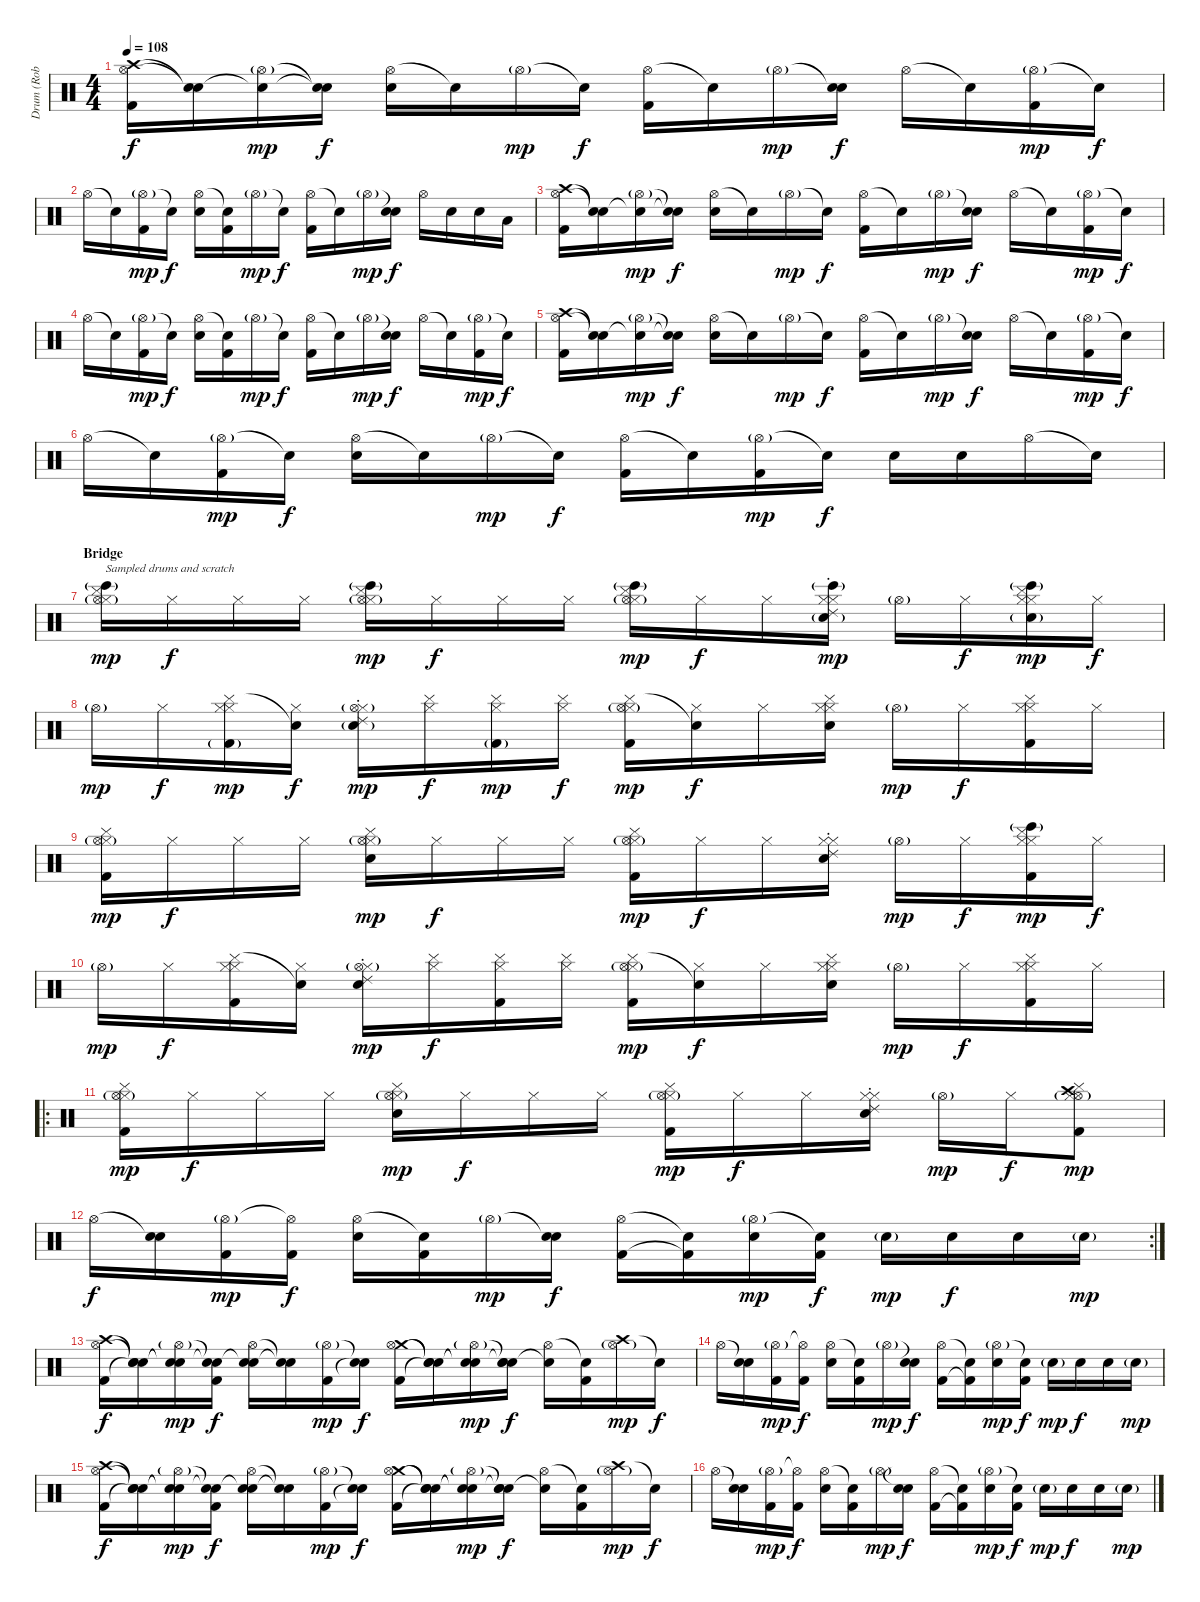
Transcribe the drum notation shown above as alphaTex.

\track ("Drum (Rob Bourdon)" "Drum (Rob ") {instrument percussion}
\staff {score}
\articulation defaults
\ts (4 4)
\tempo 108
\clef neutral
\ks c
("Crash high (hit)" "Hi-Hat (open)" "Kick (hit) 2").16{dy f} ("Snare (hit)"{t} "Snare (hit)"{t}).16 ("Snare (hit)"{t} "Hi-Hat (open)"{g}).16{dy mp} ("Snare (hit)"{t} "Snare (hit)"{t}).16{dy f} ("Hi-Hat (open)" "Electric Snare (hit)").16 "Snare (hit)"{t}.16 "Hi-Hat (open)"{g}.16{dy mp} "Snare (hit)"{t}.16{dy f} ("Hi-Hat (open)" "Kick (hit) 2").16 "Snare (hit)"{t}.16 "Hi-Hat (open)"{g}.16{dy mp} ("Snare (hit)"{t} "Electric Snare (hit)").16{dy f} "Hi-Hat (open)".16 "Snare (hit)"{t}.16 ("Hi-Hat (open)"{g} "Kick (hit) 2").16{dy mp} "Snare (hit)"{t}.16{dy f} |
"Hi-Hat (open)".16 "Snare (hit)"{t}.16 ("Hi-Hat (open)"{g} "Kick (hit) 2").16{dy mp} "Snare (hit)"{t}.16{dy f} ("Hi-Hat (open)" "Electric Snare (hit)").16 ("Snare (hit)"{t} "Kick (hit) 2").16 "Hi-Hat (open)"{g}.16{dy mp} "Snare (hit)"{t}.16{dy f} ("Hi-Hat (open)" "Kick (hit) 2").16 "Snare (hit)"{t}.16 "Hi-Hat (open)"{g}.16{dy mp} ("Snare (hit)"{t} "Electric Snare (hit)").16{dy f} "Hi-Hat (open)".16 "Electric Snare (hit)".16 "Electric Snare (hit)".16 "Low Tom (hit)".16 |
("Crash high (hit)" "Hi-Hat (open)" "Kick (hit) 2").16 ("Snare (hit)"{t} "Snare (hit)"{t}).16 ("Snare (hit)"{t} "Hi-Hat (open)"{g}).16{dy mp} ("Snare (hit)"{t} "Snare (hit)"{t}).16{dy f} ("Hi-Hat (open)" "Electric Snare (hit)").16 "Snare (hit)"{t}.16 "Hi-Hat (open)"{g}.16{dy mp} "Snare (hit)"{t}.16{dy f} ("Hi-Hat (open)" "Kick (hit) 2").16 "Snare (hit)"{t}.16 "Hi-Hat (open)"{g}.16{dy mp} ("Snare (hit)"{t} "Electric Snare (hit)").16{dy f} "Hi-Hat (open)".16 "Snare (hit)"{t}.16 ("Hi-Hat (open)"{g} "Kick (hit) 2").16{dy mp} "Snare (hit)"{t}.16{dy f} |
"Hi-Hat (open)".16 "Snare (hit)"{t}.16 ("Hi-Hat (open)"{g} "Kick (hit) 2").16{dy mp} "Snare (hit)"{t}.16{dy f} ("Hi-Hat (open)" "Electric Snare (hit)").16 ("Snare (hit)"{t} "Kick (hit) 2").16 "Hi-Hat (open)"{g}.16{dy mp} "Snare (hit)"{t}.16{dy f} ("Hi-Hat (open)" "Kick (hit) 2").16 "Snare (hit)"{t}.16 "Hi-Hat (open)"{g}.16{dy mp} ("Snare (hit)"{t} "Electric Snare (hit)").16{dy f} "Hi-Hat (open)".16 "Snare (hit)"{t}.16 ("Hi-Hat (open)"{g} "Kick (hit) 2").16{dy mp} "Snare (hit)"{t}.16{dy f} |
("Crash high (hit)" "Hi-Hat (open)" "Kick (hit) 2").16 ("Snare (hit)"{t} "Snare (hit)"{t}).16 ("Snare (hit)"{t} "Hi-Hat (open)"{g}).16{dy mp} ("Snare (hit)"{t} "Snare (hit)"{t}).16{dy f} ("Hi-Hat (open)" "Electric Snare (hit)").16 "Snare (hit)"{t}.16 "Hi-Hat (open)"{g}.16{dy mp} "Snare (hit)"{t}.16{dy f} ("Hi-Hat (open)" "Kick (hit) 2").16 "Snare (hit)"{t}.16 "Hi-Hat (open)"{g}.16{dy mp} ("Snare (hit)"{t} "Electric Snare (hit)").16{dy f} "Hi-Hat (open)".16 "Snare (hit)"{t}.16 ("Hi-Hat (open)"{g} "Kick (hit) 2").16{dy mp} "Snare (hit)"{t}.16{dy f} |
"Hi-Hat (open)".16 "Snare (hit)"{t}.16 ("Hi-Hat (open)"{g} "Kick (hit) 2").16{dy mp} "Snare (hit)"{t}.16{dy f} ("Hi-Hat (open)" "Electric Snare (hit)").16 "Snare (hit)"{t}.16 "Hi-Hat (open)"{g}.16{dy mp} "Snare (hit)"{t}.16{dy f} ("Hi-Hat (open)" "Kick (hit) 2").16 "Snare (hit)"{t}.16 ("Hi-Hat (open)"{g} "Kick (hit) 2").16{dy mp} "Snare (hit)"{t}.16{dy f} "Electric Snare (hit)".16 "Electric Snare (hit)".16 "Hi-Hat (open)".16 "Snare (hit)"{t}.16 |
\section ("" "Bridge")
("Cymbal (hit)" "Hi-Hat (closed)" "Hi-Hat (open)"{g} "Bongo High (hit)"{g}).16{txt "Sampled drums and scratch" dy mp} "Hi-Hat (closed)".16{dy f} "Hi-Hat (closed)".16 "Hi-Hat (closed)".16 ("Cymbal (hit)" "Hi-Hat (closed)" "Hi-Hat (open)"{g} "Bongo High (hit)"{g}).16{dy mp} "Hi-Hat (closed)".16{dy f} "Hi-Hat (closed)".16 "Hi-Hat (closed)".16 ("Cymbal (hit)" "Hi-Hat (closed)" "Hi-Hat (open)"{g} "Bongo High (hit)"{g}).16{dy mp} "Hi-Hat (closed)".16{dy f} "Hi-Hat (closed)".16 ("Ride (choke) 2" "Hi-Hat (closed)" "Hi-Hat (closed)" "Bongo High (hit)"{g} "Electric Snare (hit)"{g}).16{dy mp} "Hi-Hat (open)"{g}.16 "Hi-Hat (closed)".16{dy f} ("Cymbal (hit)" "Hi-Hat (closed)" "Hi-Hat (closed)" "Bongo High (hit)"{g} "Electric Snare (hit)"{g}).16{dy mp} "Hi-Hat (closed)".16{dy f} |
"Hi-Hat (open)"{g}.16{dy mp} "Hi-Hat (closed)".16{dy f} ("Cymbal (hit)" "Hi-Hat (closed)" "Hi-Hat (closed)" "Kick (hit) 2"{g}).16{dy mp} ("Snare (hit)"{t} "Hi-Hat (closed)").16{dy f} ("Ride (choke) 2" "Hi-Hat (closed)" "Hi-Hat (open)"{g} "Electric Snare (hit)"{g}).16{dy mp} ("Cymbal (hit)" "Hi-Hat (closed)").16{dy f} ("Cymbal (hit)" "Hi-Hat (closed)" "Kick (hit) 2"{g}).16{dy mp} ("Cymbal (hit)" "Hi-Hat (closed)").16{dy f} ("Cymbal (hit)" "Hi-Hat (closed)" "Hi-Hat (open)"{g} "Kick (hit) 2").16{dy mp} ("Snare (hit)"{t} "Hi-Hat (closed)").16{dy f} "Hi-Hat (closed)".16 ("Cymbal (hit)" "Hi-Hat (closed)" "Hi-Hat (closed)" "Electric Snare (hit)").16 "Hi-Hat (open)"{g}.16{dy mp} "Hi-Hat (closed)".16{dy f} ("Cymbal (hit)" "Hi-Hat (closed)" "Hi-Hat (closed)" "Kick (hit) 2").16 "Hi-Hat (closed)".16 |
("Cymbal (hit)" "Hi-Hat (closed)" "Hi-Hat (open)"{g} "Kick (hit) 2").16{dy mp} "Hi-Hat (closed)".16{dy f} "Hi-Hat (closed)".16 "Hi-Hat (closed)".16 ("Cymbal (hit)" "Hi-Hat (closed)" "Hi-Hat (open)"{g} "Electric Snare (hit)").16{dy mp} "Hi-Hat (closed)".16{dy f} "Hi-Hat (closed)".16 "Hi-Hat (closed)".16 ("Cymbal (hit)" "Hi-Hat (closed)" "Hi-Hat (open)"{g} "Kick (hit) 2").16{dy mp} "Hi-Hat (closed)".16{dy f} "Hi-Hat (closed)".16 ("Ride (choke) 2" "Hi-Hat (closed)" "Hi-Hat (closed)" "Electric Snare (hit)").16 "Hi-Hat (open)"{g}.16{dy mp} "Hi-Hat (closed)".16{dy f} ("Cymbal (hit)" "Hi-Hat (closed)" "Hi-Hat (closed)" "Bongo High (hit)"{g} "Kick (hit) 2").16{dy mp} "Hi-Hat (closed)".16{dy f} |
"Hi-Hat (open)"{g}.16{dy mp} "Hi-Hat (closed)".16{dy f} ("Cymbal (hit)" "Hi-Hat (closed)" "Hi-Hat (closed)" "Kick (hit) 2").16 ("Snare (hit)"{t} "Hi-Hat (closed)").16 ("Ride (choke) 2" "Hi-Hat (closed)" "Hi-Hat (open)"{g} "Electric Snare (hit)").16{dy mp} ("Cymbal (hit)" "Hi-Hat (closed)").16{dy f} ("Cymbal (hit)" "Hi-Hat (closed)" "Kick (hit) 2").16 ("Cymbal (hit)" "Hi-Hat (closed)").16 ("Cymbal (hit)" "Hi-Hat (closed)" "Hi-Hat (open)"{g} "Kick (hit) 2").16{dy mp} ("Snare (hit)"{t} "Hi-Hat (closed)").16{dy f} "Hi-Hat (closed)".16 ("Cymbal (hit)" "Hi-Hat (closed)" "Hi-Hat (closed)" "Electric Snare (hit)").16 "Hi-Hat (open)"{g}.16{dy mp} "Hi-Hat (closed)".16{dy f} ("Cymbal (hit)" "Hi-Hat (closed)" "Hi-Hat (closed)" "Kick (hit) 2").16 "Hi-Hat (closed)".16 |
\ro
("Cymbal (hit)" "Hi-Hat (closed)" "Hi-Hat (open)"{g} "Kick (hit) 2").16{dy mp} "Hi-Hat (closed)".16{dy f} "Hi-Hat (closed)".16 "Hi-Hat (closed)".16 ("Cymbal (hit)" "Hi-Hat (closed)" "Hi-Hat (open)"{g} "Electric Snare (hit)").16{dy mp} "Hi-Hat (closed)".16{dy f} "Hi-Hat (closed)".16 "Hi-Hat (closed)".16 ("Cymbal (hit)" "Hi-Hat (closed)" "Hi-Hat (open)"{g} "Kick (hit) 2").16{dy mp} "Hi-Hat (closed)".16{dy f} "Hi-Hat (closed)".16 ("Ride (choke) 2" "Hi-Hat (closed)" "Hi-Hat (closed)" "Electric Snare (hit)").16 "Hi-Hat (open)"{g}.16{dy mp} "Hi-Hat (closed)".16{dy f} ("Cymbal (hit)" "Crash high (hit)" "Hi-Hat (open)"{g} "Hi-Hat (closed)" "Kick (hit) 2").8{dy mp} |
\rc 2 "Hi-Hat (open)".16{dy f}
("Snare (hit)"{t} "Electric Snare (hit)").16 ("Hi-Hat (open)"{g} "Kick (hit) 2").16{dy mp} ("Hi-Hat (open)"{t} "Kick (hit) 2").16{dy f} ("Hi-Hat (open)" "Electric Snare (hit)").16 ("Snare (hit)"{t} "Kick (hit) 2").16 "Hi-Hat (open)"{g}.16{dy mp} ("Snare (hit)"{t} "Electric Snare (hit)").16{dy f} ("Hi-Hat (open)" "Kick (hit) 2").16 ("Snare (hit)"{t} "Kick (hit) 2"{t}).16 ("Hi-Hat (open)"{g} "Electric Snare (hit)").16{dy mp} ("Snare (hit)"{t} "Kick (hit) 2").16{dy f} "Electric Snare (hit)"{g}.16{dy mp} "Electric Snare (hit)".16{dy f} "Electric Snare (hit)".16 "Electric Snare (hit)"{g}.16{dy mp} |
("Crash high (hit)" "Hi-Hat (open)" "Kick (hit) 2").16{dy f} ("Snare (hit)"{t} "Snare (hit)"{t} "Snare (hit)"{t}).16 ("Snare (hit)"{t} "Hi-Hat (open)"{g} "Snare (hit)"{t}).16{dy mp} ("Snare (hit)"{t} "Snare (hit)"{t} "Kick (hit) 2").16{dy f} ("Snare (hit)"{t} "Hi-Hat (open)" "Electric Snare (hit)").16 ("Snare (hit)"{t} "Snare (hit)"{t}).16 ("Hi-Hat (open)"{g} "Kick (hit) 2").16{dy mp} ("Snare (hit)"{t} "Snare (hit)"{t}).16{dy f} ("Crash medium (hit)" "Hi-Hat (open)" "Kick (hit) 2").16 ("Snare (hit)"{t} "Snare (hit)"{t} "Snare (hit)"{t}).16 ("Snare (hit)"{t} "Hi-Hat (open)"{g} "Snare (hit)"{t}).16{dy mp} ("Snare (hit)"{t} "Snare (hit)"{t} "Electric Snare (hit)").16{dy f} ("Hi-Hat (open)" "Snare (hit)"{t}).16 ("Snare (hit)"{t} "Kick (hit) 2").16 ("Crash high (hit)" "Hi-Hat (open)"{g}).16{dy mp} "Snare (hit)"{t}.16{dy f} |
"Hi-Hat (open)".16 ("Snare (hit)"{t} "Electric Snare (hit)").16 ("Hi-Hat (open)"{g} "Kick (hit) 2").16{dy mp} ("Hi-Hat (open)"{t} "Kick (hit) 2").16{dy f} ("Hi-Hat (open)" "Electric Snare (hit)").16 ("Snare (hit)"{t} "Kick (hit) 2").16 "Hi-Hat (open)"{g}.16{dy mp} ("Snare (hit)"{t} "Electric Snare (hit)").16{dy f} ("Hi-Hat (open)" "Kick (hit) 2").16 ("Snare (hit)"{t} "Kick (hit) 2"{t}).16 ("Hi-Hat (open)"{g} "Electric Snare (hit)").16{dy mp} ("Snare (hit)"{t} "Kick (hit) 2").16{dy f} "Electric Snare (hit)"{g}.16{dy mp} "Electric Snare (hit)".16{dy f} "Electric Snare (hit)".16 "Electric Snare (hit)"{g}.16{dy mp} |
("Crash high (hit)" "Hi-Hat (open)" "Kick (hit) 2").16{dy f} ("Snare (hit)"{t} "Snare (hit)"{t} "Snare (hit)"{t}).16 ("Snare (hit)"{t} "Hi-Hat (open)"{g} "Snare (hit)"{t}).16{dy mp} ("Snare (hit)"{t} "Snare (hit)"{t} "Kick (hit) 2").16{dy f} ("Snare (hit)"{t} "Hi-Hat (open)" "Electric Snare (hit)").16 ("Snare (hit)"{t} "Snare (hit)"{t}).16 ("Hi-Hat (open)"{g} "Kick (hit) 2").16{dy mp} ("Snare (hit)"{t} "Snare (hit)"{t}).16{dy f} ("Crash medium (hit)" "Hi-Hat (open)" "Kick (hit) 2").16 ("Snare (hit)"{t} "Snare (hit)"{t} "Snare (hit)"{t}).16 ("Snare (hit)"{t} "Hi-Hat (open)"{g} "Snare (hit)"{t}).16{dy mp} ("Snare (hit)"{t} "Snare (hit)"{t} "Electric Snare (hit)").16{dy f} ("Hi-Hat (open)" "Snare (hit)"{t}).16 ("Snare (hit)"{t} "Kick (hit) 2").16 ("Crash high (hit)" "Hi-Hat (open)"{g}).16{dy mp} "Snare (hit)"{t}.16{dy f} |
"Hi-Hat (open)".16 ("Snare (hit)"{t} "Electric Snare (hit)").16 ("Hi-Hat (open)"{g} "Kick (hit) 2").16{dy mp} ("Hi-Hat (open)"{t} "Kick (hit) 2").16{dy f} ("Hi-Hat (open)" "Electric Snare (hit)").16 ("Snare (hit)"{t} "Kick (hit) 2").16 "Hi-Hat (open)"{g}.16{dy mp} ("Snare (hit)"{t} "Electric Snare (hit)").16{dy f} ("Hi-Hat (open)" "Kick (hit) 2").16 ("Snare (hit)"{t} "Kick (hit) 2"{t}).16 ("Hi-Hat (open)"{g} "Electric Snare (hit)").16{dy mp} ("Snare (hit)"{t} "Kick (hit) 2").16{dy f} "Electric Snare (hit)"{g}.16{dy mp} "Electric Snare (hit)".16{dy f} "Electric Snare (hit)".16 "Electric Snare (hit)"{g}.16{dy mp}
